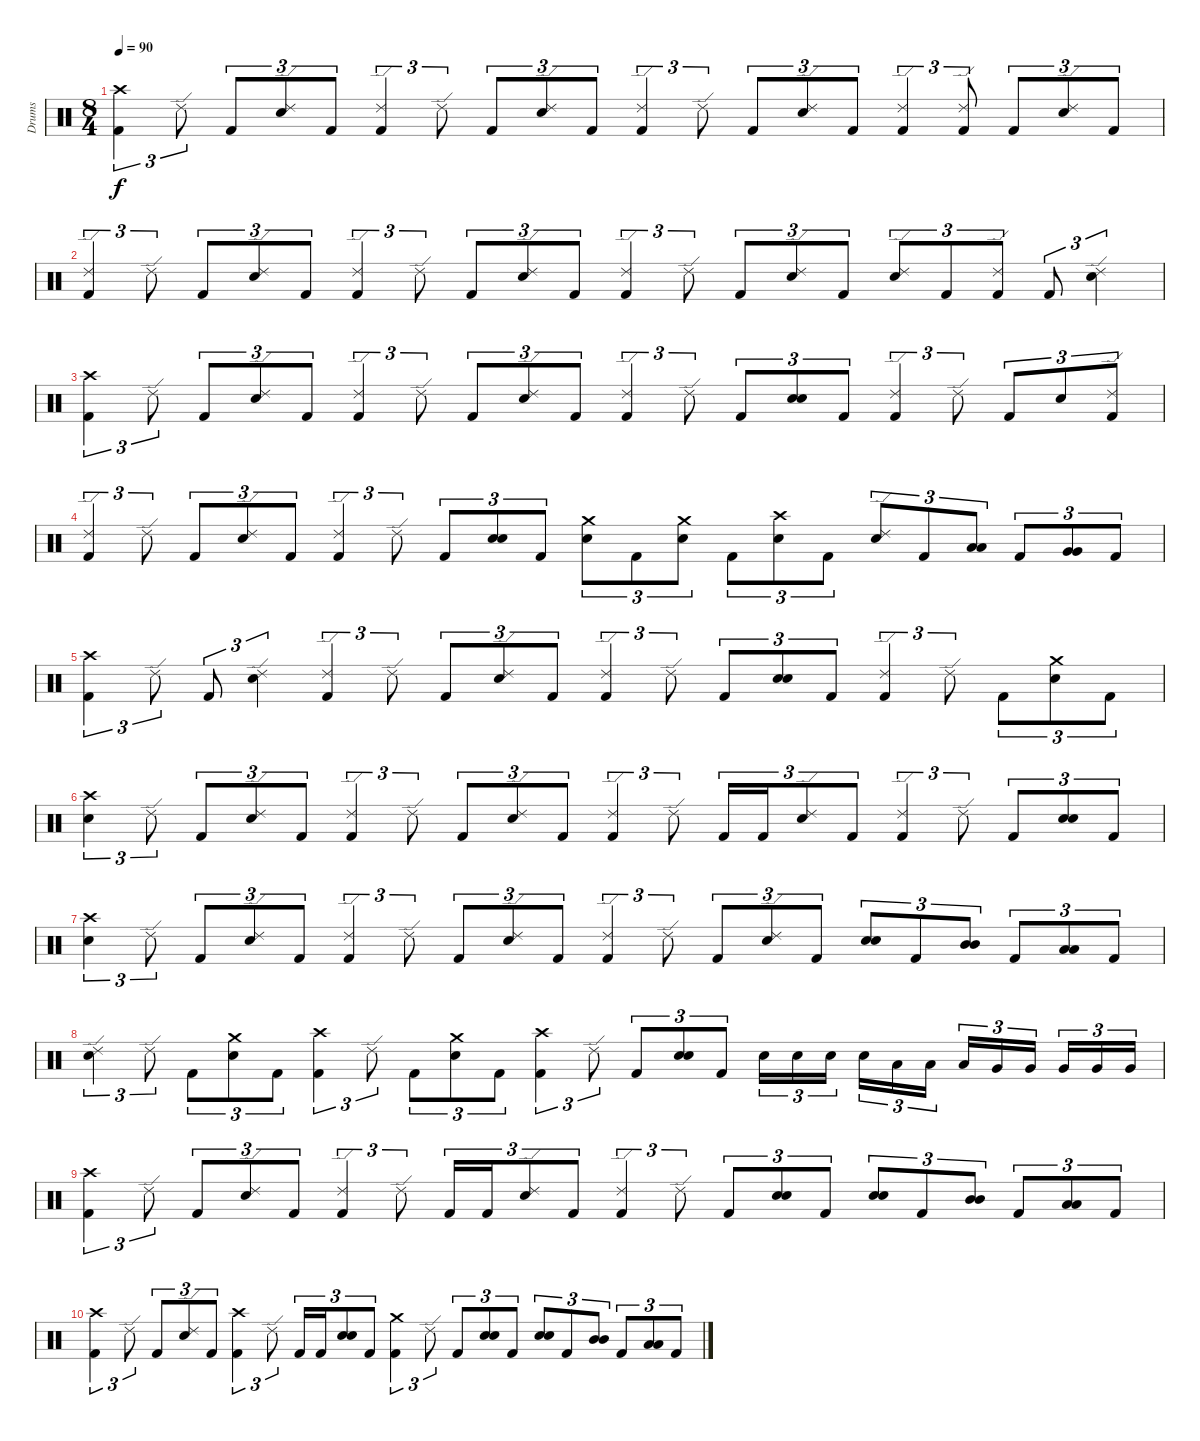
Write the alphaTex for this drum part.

\track ("Drums" "Drums") {instrument percussion}
\staff {score}
\articulation defaults
\ts (8 4)
\tempo 90
\clef neutral
\ks c
("Crash high (hit)" "Kick (hit) 2").4{tu (3 2) dy f} "Ride (edge) 2".8{tu (3 2)} "Kick (hit) 2".8{tu (3 2)} ("Ride (edge) 2" "Electric Snare (hit)").8{tu (3 2)} "Kick (hit) 2".8{tu (3 2)} ("Ride (edge) 2" "Kick (hit) 2").4{tu (3 2)} "Ride (edge) 2".8{tu (3 2)} "Kick (hit) 2".8{tu (3 2)} ("Ride (edge) 2" "Electric Snare (hit)").8{tu (3 2)} "Kick (hit) 2".8{tu (3 2)} ("Ride (edge) 2" "Kick (hit) 2").4{tu (3 2)} "Ride (edge) 2".8{tu (3 2)} "Kick (hit) 2".8{tu (3 2)} ("Ride (edge) 2" "Electric Snare (hit)").8{tu (3 2)} "Kick (hit) 2".8{tu (3 2)} ("Ride (edge) 2" "Kick (hit) 2").4{tu (3 2)} ("Ride (edge) 2" "Kick (hit) 2").8{tu (3 2)} "Kick (hit) 2".8{tu (3 2)} ("Ride (edge) 2" "Electric Snare (hit)").8{tu (3 2)} "Kick (hit) 2".8{tu (3 2)} |
("Ride (edge) 2" "Kick (hit) 2").4{tu (3 2)} "Ride (edge) 2".8{tu (3 2)} "Kick (hit) 2".8{tu (3 2)} ("Ride (edge) 2" "Electric Snare (hit)").8{tu (3 2)} "Kick (hit) 2".8{tu (3 2)} ("Ride (edge) 2" "Kick (hit) 2").4{tu (3 2)} "Ride (edge) 2".8{tu (3 2)} "Kick (hit) 2".8{tu (3 2)} ("Ride (edge) 2" "Electric Snare (hit)").8{tu (3 2)} "Kick (hit) 2".8{tu (3 2)} ("Ride (edge) 2" "Kick (hit) 2").4{tu (3 2)} "Ride (edge) 2".8{tu (3 2)} "Kick (hit) 2".8{tu (3 2)} ("Ride (edge) 2" "Electric Snare (hit)").8{tu (3 2)} "Kick (hit) 2".8{tu (3 2)} ("Ride (edge) 2" "Electric Snare (hit)").8{tu (3 2)} "Kick (hit) 2".8{tu (3 2)} ("Ride (edge) 2" "Kick (hit) 2").8{tu (3 2)} "Kick (hit) 2".8{tu (3 2)} ("Ride (edge) 2" "Electric Snare (hit)").4{tu (3 2)} |
("Crash high (hit)" "Kick (hit) 2").4{tu (3 2)} "Ride (edge) 2".8{tu (3 2)} "Kick (hit) 2".8{tu (3 2)} ("Ride (edge) 2" "Electric Snare (hit)").8{tu (3 2)} "Kick (hit) 2".8{tu (3 2)} ("Ride (edge) 2" "Kick (hit) 2").4{tu (3 2)} "Ride (edge) 2".8{tu (3 2)} "Kick (hit) 2".8{tu (3 2)} ("Ride (edge) 2" "Electric Snare (hit)").8{tu (3 2)} "Kick (hit) 2".8{tu (3 2)} ("Ride (edge) 2" "Kick (hit) 2").4{tu (3 2)} "Ride (edge) 2".8{tu (3 2)} "Kick (hit) 2".8{tu (3 2)} ("Electric Snare (hit)" "Electric Snare (hit)").8{tu (3 2) bu 60} "Kick (hit) 2".8{tu (3 2)} ("Ride (edge) 2" "Kick (hit) 2").4{tu (3 2)} "Ride (edge) 2".8{tu (3 2)} "Kick (hit) 2".8{tu (3 2)} "Electric Snare (hit)".8{tu (3 2)} ("Ride (edge) 2" "Kick (hit) 2").8{tu (3 2)} |
("Ride (edge) 2" "Kick (hit) 2").4{tu (3 2)} "Ride (edge) 2".8{tu (3 2)} "Kick (hit) 2".8{tu (3 2)} ("Ride (edge) 2" "Electric Snare (hit)").8{tu (3 2)} "Kick (hit) 2".8{tu (3 2)} ("Ride (edge) 2" "Kick (hit) 2").4{tu (3 2)} "Ride (edge) 2".8{tu (3 2)} "Kick (hit) 2".8{tu (3 2)} ("Electric Snare (hit)" "Electric Snare (hit)").8{tu (3 2) bu 60} "Kick (hit) 2".8{tu (3 2)} ("Crash medium (hit)" "Electric Snare (hit)").8{tu (3 2)} "Kick (hit) 2".8{tu (3 2)} ("Crash medium (hit)" "Electric Snare (hit)").8{tu (3 2)} "Kick (hit) 2".8{tu (3 2)} ("Crash high (hit)" "Electric Snare (hit)").8{tu (3 2)} "Kick (hit) 2".8{tu (3 2)} ("Ride (edge) 2" "Electric Snare (hit)").8{tu (3 2)} "Kick (hit) 2".8{tu (3 2)} ("Low Tom (hit)" "Low Tom (hit)").8{tu (3 2) bu 60} "Kick (hit) 2".8{tu (3 2)} ("Very Low Tom (hit)" "Very Low Tom (hit)").8{tu (3 2) bu 60} "Kick (hit) 2".8{tu (3 2)} |
("Crash high (hit)" "Kick (hit) 2").4{tu (3 2)} "Ride (edge) 2".8{tu (3 2)} "Kick (hit) 2".8{tu (3 2)} ("Ride (edge) 2" "Electric Snare (hit)").4{tu (3 2)} ("Ride (edge) 2" "Kick (hit) 2").4{tu (3 2)} "Ride (edge) 2".8{tu (3 2)} "Kick (hit) 2".8{tu (3 2)} ("Ride (edge) 2" "Electric Snare (hit)").8{tu (3 2)} "Kick (hit) 2".8{tu (3 2)} ("Ride (edge) 2" "Kick (hit) 2").4{tu (3 2)} "Ride (edge) 2".8{tu (3 2)} "Kick (hit) 2".8{tu (3 2)} ("Electric Snare (hit)" "Electric Snare (hit)").8{tu (3 2) bu 60} "Kick (hit) 2".8{tu (3 2)} ("Ride (edge) 2" "Kick (hit) 2").4{tu (3 2)} "Ride (edge) 2".8{tu (3 2)} "Kick (hit) 2".8{tu (3 2)} ("Crash medium (hit)" "Electric Snare (hit)").8{tu (3 2)} "Kick (hit) 2".8{tu (3 2)} |
("Crash high (hit)" "Electric Snare (hit)").4{tu (3 2)} "Ride (edge) 2".8{tu (3 2)} "Kick (hit) 2".8{tu (3 2)} ("Ride (edge) 2" "Electric Snare (hit)").8{tu (3 2)} "Kick (hit) 2".8{tu (3 2)} ("Ride (edge) 2" "Kick (hit) 2").4{tu (3 2)} "Ride (edge) 2".8{tu (3 2)} "Kick (hit) 2".8{tu (3 2)} ("Ride (edge) 2" "Electric Snare (hit)").8{tu (3 2)} "Kick (hit) 2".8{tu (3 2)} ("Ride (edge) 2" "Kick (hit) 2").4{tu (3 2)} "Ride (edge) 2".8{tu (3 2)} "Kick (hit) 2".16{tu (3 2)} "Kick (hit) 2".16{tu (3 2)} ("Ride (edge) 2" "Electric Snare (hit)").8{tu (3 2)} "Kick (hit) 2".8{tu (3 2)} ("Ride (edge) 2" "Kick (hit) 2").4{tu (3 2)} "Ride (edge) 2".8{tu (3 2)} "Kick (hit) 2".8{tu (3 2)} ("Electric Snare (hit)" "Electric Snare (hit)").8{tu (3 2) bu 60} "Kick (hit) 2".8{tu (3 2)} |
("Crash high (hit)" "Electric Snare (hit)").4{tu (3 2)} "Ride (edge) 2".8{tu (3 2)} "Kick (hit) 2".8{tu (3 2)} ("Ride (edge) 2" "Electric Snare (hit)").8{tu (3 2)} "Kick (hit) 2".8{tu (3 2)} ("Ride (edge) 2" "Kick (hit) 2").4{tu (3 2)} "Ride (edge) 2".8{tu (3 2)} "Kick (hit) 2".8{tu (3 2)} ("Ride (edge) 2" "Electric Snare (hit)").8{tu (3 2)} "Kick (hit) 2".8{tu (3 2)} ("Ride (edge) 2" "Kick (hit) 2").4{tu (3 2)} "Ride (edge) 2".8{tu (3 2)} "Kick (hit) 2".8{tu (3 2)} ("Ride (edge) 2" "Electric Snare (hit)").8{tu (3 2)} "Kick (hit) 2".8{tu (3 2)} ("Electric Snare (hit)" "Electric Snare (hit)").8{tu (3 2) bu 60} "Kick (hit) 2".8{tu (3 2)} ("Mid Tom (hit)" "Mid Tom (hit)").8{tu (3 2) bu 60} "Kick (hit) 2".8{tu (3 2)} ("Low Tom (hit)" "Low Tom (hit)").8{tu (3 2) bu 60} "Kick (hit) 2".8{tu (3 2)} |
("Ride (edge) 2" "Electric Snare (hit)").4{tu (3 2)} "Ride (edge) 2".8{tu (3 2)} "Kick (hit) 2".8{tu (3 2)} ("Crash medium (hit)" "Electric Snare (hit)").8{tu (3 2)} "Kick (hit) 2".8{tu (3 2)} ("Crash high (hit)" "Kick (hit) 2").4{tu (3 2)} "Ride (edge) 2".8{tu (3 2)} "Kick (hit) 2".8{tu (3 2)} ("Crash medium (hit)" "Electric Snare (hit)").8{tu (3 2)} "Kick (hit) 2".8{tu (3 2)} ("Crash high (hit)" "Kick (hit) 2").4{tu (3 2)} "Ride (edge) 2".8{tu (3 2)} "Kick (hit) 2".8{tu (3 2)} ("Electric Snare (hit)" "Electric Snare (hit)").8{tu (3 2) bu 60} "Kick (hit) 2".8{tu (3 2)} "Electric Snare (hit)".16{tu (3 2)} "Electric Snare (hit)".16{tu (3 2)} "Electric Snare (hit)".16{tu (3 2) beam splitsecondary} "Electric Snare (hit)".16{tu (3 2)} "Low Tom (hit)".16{tu (3 2)} "Low Tom (hit)".16{tu (3 2)} "Low Tom (hit)".16{tu (3 2)} "Very Low Tom (hit)".16{tu (3 2)} "Very Low Tom (hit)".16{tu (3 2) beam splitsecondary} "Very Low Tom (hit)".16{tu (3 2)} "Very Low Tom (hit)".16{tu (3 2)} "Very Low Tom (hit)".16{tu (3 2)} |
("Crash high (hit)" "Kick (hit) 2").4{tu (3 2)} "Ride (edge) 2".8{tu (3 2)} "Kick (hit) 2".8{tu (3 2)} ("Ride (edge) 2" "Electric Snare (hit)").8{tu (3 2)} "Kick (hit) 2".8{tu (3 2)} ("Ride (edge) 2" "Kick (hit) 2").4{tu (3 2)} "Ride (edge) 2".8{tu (3 2)} "Kick (hit) 2".16{tu (3 2)} "Kick (hit) 2".16{tu (3 2)} ("Ride (edge) 2" "Electric Snare (hit)").8{tu (3 2)} "Kick (hit) 2".8{tu (3 2)} ("Ride (edge) 2" "Kick (hit) 2").4{tu (3 2)} "Ride (edge) 2".8{tu (3 2)} "Kick (hit) 2".8{tu (3 2)} ("Electric Snare (hit)" "Electric Snare (hit)").8{tu (3 2) bu 60} "Kick (hit) 2".8{tu (3 2)} ("Electric Snare (hit)" "Electric Snare (hit)").8{tu (3 2) bu 60} "Kick (hit) 2".8{tu (3 2)} ("Mid Tom (hit)" "Mid Tom (hit)").8{tu (3 2) bu 60} "Kick (hit) 2".8{tu (3 2)} ("Low Tom (hit)" "Low Tom (hit)").8{tu (3 2) bu 60} "Kick (hit) 2".8{tu (3 2)} |
("Crash high (hit)" "Kick (hit) 2").4{tu (3 2)} "Ride (edge) 2".8{tu (3 2)} "Kick (hit) 2".8{tu (3 2)} ("Ride (edge) 2" "Electric Snare (hit)").8{tu (3 2)} "Kick (hit) 2".8{tu (3 2)} ("Crash high (hit)" "Kick (hit) 2").4{tu (3 2)} "Ride (edge) 2".8{tu (3 2)} "Kick (hit) 2".16{tu (3 2)} "Kick (hit) 2".16{tu (3 2)} ("Electric Snare (hit)" "Electric Snare (hit)").8{tu (3 2) bu 60} "Kick (hit) 2".8{tu (3 2)} ("Crash medium (hit)" "Kick (hit) 2").4{tu (3 2)} "Ride (edge) 2".8{tu (3 2)} "Kick (hit) 2".8{tu (3 2)} ("Electric Snare (hit)" "Electric Snare (hit)").8{tu (3 2) bu 60} "Kick (hit) 2".8{tu (3 2)} ("Electric Snare (hit)" "Electric Snare (hit)").8{tu (3 2) bu 60} "Kick (hit) 2".8{tu (3 2)} ("Mid Tom (hit)" "Mid Tom (hit)").8{tu (3 2) bu 60} "Kick (hit) 2".8{tu (3 2)} ("Low Tom (hit)" "Low Tom (hit)").8{tu (3 2) bu 60} "Kick (hit) 2".8{tu (3 2)}
